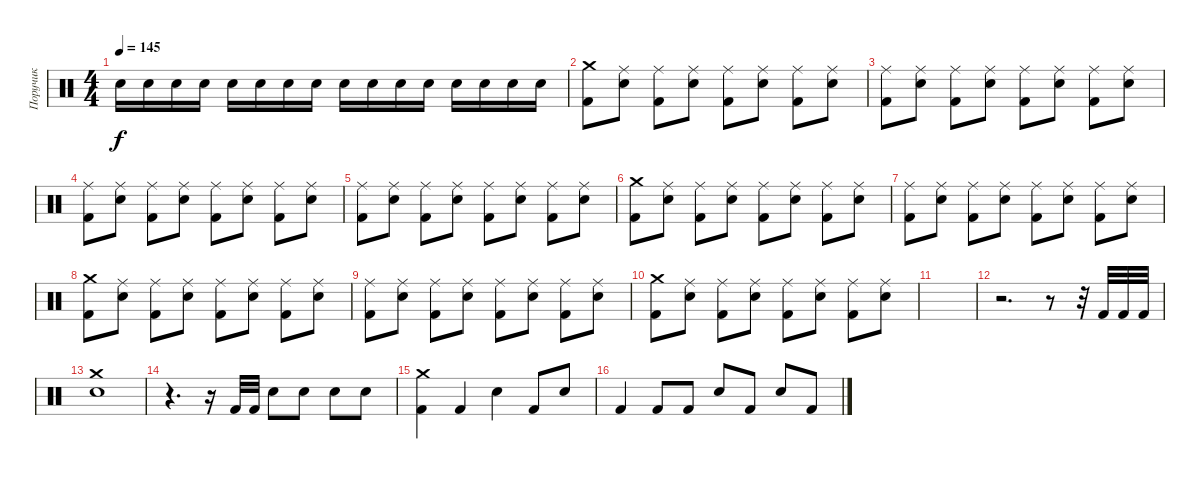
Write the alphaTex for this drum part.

\track ("Поручик" "Поручик") {instrument percussion}
\staff {score}
\articulation defaults
\ts (4 4)
\tempo 145
\clef neutral
\ks c "Snare (hit) 2".16{dy f} "Snare (hit) 2".16 "Snare (hit) 2".16 "Snare (hit) 2".16 "Snare (hit) 2".16 "Snare (hit) 2".16 "Snare (hit) 2".16 "Snare (hit) 2".16 "Snare (hit) 2".16 "Snare (hit) 2".16 "Snare (hit) 2".16 "Snare (hit) 2".16 "Snare (hit) 2".16 "Snare (hit) 2".16 "Snare (hit) 2".16 "Snare (hit) 2".16
|
("Crash medium (hit)" "Kick (hit) 2").8 ("Ride (middle)" "Snare (hit) 2").8 ("Ride (middle)" "Kick (hit) 2").8 ("Ride (middle)" "Snare (hit) 2").8 ("Ride (middle)" "Kick (hit) 2").8 ("Ride (middle)" "Snare (hit) 2").8 ("Ride (middle)" "Kick (hit) 2").8 ("Ride (middle)" "Snare (hit) 2").8 |
("Ride (middle)" "Kick (hit) 2").8 ("Ride (middle)" "Snare (hit) 2").8 ("Ride (middle)" "Kick (hit) 2").8 ("Ride (middle)" "Snare (hit) 2").8 ("Ride (middle)" "Kick (hit) 2").8 ("Ride (middle)" "Snare (hit) 2").8 ("Ride (middle)" "Kick (hit) 2").8 ("Ride (middle)" "Snare (hit) 2").8 |
("Ride (middle)" "Kick (hit) 2").8 ("Ride (middle)" "Snare (hit) 2").8 ("Ride (middle)" "Kick (hit) 2").8 ("Ride (middle)" "Snare (hit) 2").8 ("Ride (middle)" "Kick (hit) 2").8 ("Ride (middle)" "Snare (hit) 2").8 ("Ride (middle)" "Kick (hit) 2").8 ("Ride (middle)" "Snare (hit) 2").8 |
("Ride (middle)" "Kick (hit) 2").8 ("Ride (middle)" "Snare (hit) 2").8 ("Ride (middle)" "Kick (hit) 2").8 ("Ride (middle)" "Snare (hit) 2").8 ("Ride (middle)" "Kick (hit) 2").8 ("Ride (middle)" "Snare (hit) 2").8 ("Ride (middle)" "Kick (hit) 2").8 ("Ride (middle)" "Snare (hit) 2").8 |
("Crash medium (hit)" "Kick (hit) 2").8 ("Ride (middle)" "Snare (hit) 2").8 ("Ride (middle)" "Kick (hit) 2").8 ("Ride (middle)" "Snare (hit) 2").8 ("Ride (middle)" "Kick (hit) 2").8 ("Ride (middle)" "Snare (hit) 2").8 ("Ride (middle)" "Kick (hit) 2").8 ("Ride (middle)" "Snare (hit) 2").8 |
("Ride (middle)" "Kick (hit) 2").8 ("Ride (middle)" "Snare (hit) 2").8 ("Ride (middle)" "Kick (hit) 2").8 ("Ride (middle)" "Snare (hit) 2").8 ("Ride (middle)" "Kick (hit) 2").8 ("Ride (middle)" "Snare (hit) 2").8 ("Ride (middle)" "Kick (hit) 2").8 ("Ride (middle)" "Snare (hit) 2").8 |
("Crash medium (hit)" "Kick (hit) 2").8 ("Ride (middle)" "Snare (hit) 2").8 ("Ride (middle)" "Kick (hit) 2").8 ("Ride (middle)" "Snare (hit) 2").8 ("Ride (middle)" "Kick (hit) 2").8 ("Ride (middle)" "Snare (hit) 2").8 ("Ride (middle)" "Kick (hit) 2").8 ("Ride (middle)" "Snare (hit) 2").8 |
("Ride (middle)" "Kick (hit) 2").8 ("Ride (middle)" "Snare (hit) 2").8 ("Ride (middle)" "Kick (hit) 2").8 ("Ride (middle)" "Snare (hit) 2").8 ("Ride (middle)" "Kick (hit) 2").8 ("Ride (middle)" "Snare (hit) 2").8 ("Ride (middle)" "Kick (hit) 2").8 ("Ride (middle)" "Snare (hit) 2").8 |
("Crash medium (hit)" "Kick (hit) 2").8 ("Ride (middle)" "Snare (hit) 2").8 ("Ride (middle)" "Kick (hit) 2").8 ("Ride (middle)" "Snare (hit) 2").8 ("Ride (middle)" "Kick (hit) 2").8 ("Ride (middle)" "Snare (hit) 2").8 ("Ride (middle)" "Kick (hit) 2").8 ("Ride (middle)" "Snare (hit) 2").8 |
|
r.2{d} r.8 r.32 "Kick (hit) 2".32 "Kick (hit) 2".32 "Kick (hit) 2".32 |
("Crash medium (hit)" "Snare (hit) 2").1 |
r.4{d} r.16 "Kick (hit) 2".32 "Kick (hit) 2".32 "Snare (hit) 2".8 "Snare (hit) 2".8 "Snare (hit) 2".8 "Snare (hit) 2".8 |
("Crash medium (hit)" "Kick (hit) 2").4 "Kick (hit) 2".4 "Snare (hit) 2".4 "Kick (hit) 2".8 "Snare (hit) 2".8 |
"Kick (hit) 2".4 "Kick (hit) 2".8 "Kick (hit) 2".8 "Snare (hit) 2".8 "Kick (hit) 2".8 "Snare (hit) 2".8 "Kick (hit) 2".8
